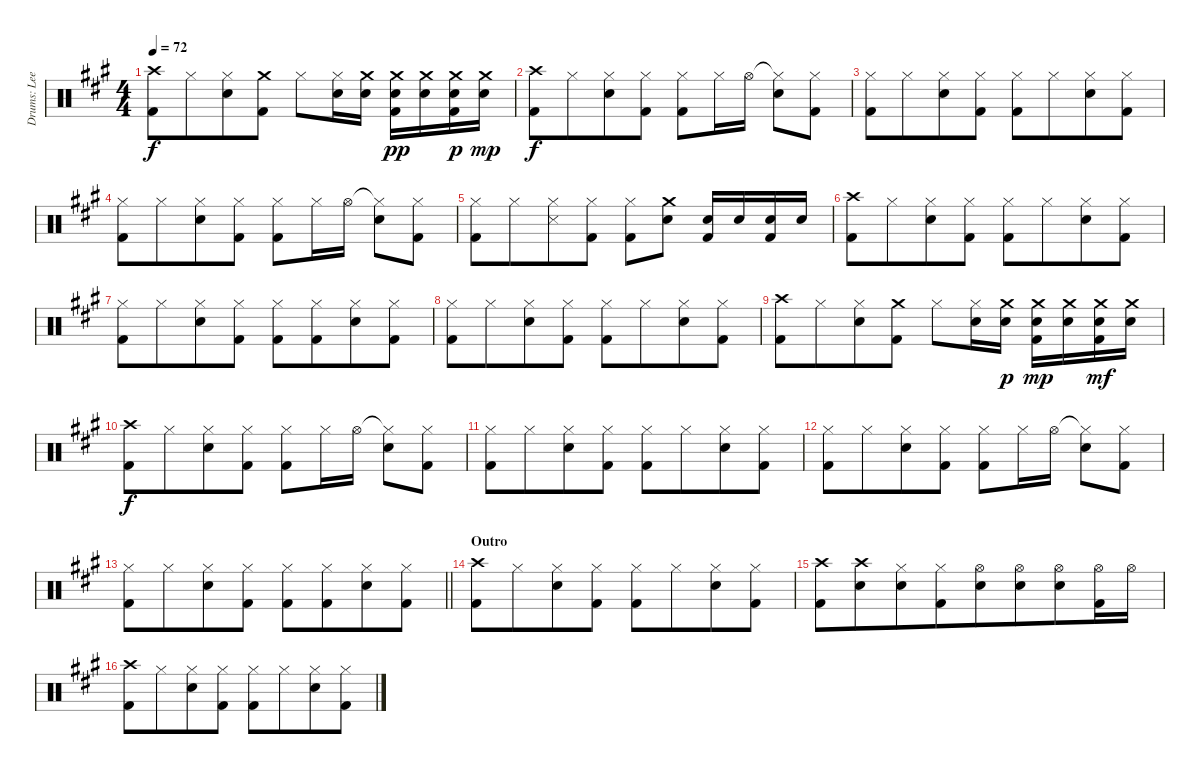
\track ("Drums: Lee" "Drums: Lee") {instrument percussion}
\staff {score}
\articulation defaults
\ts (4 4)
\tempo 72
\clef neutral
\ks a
("Crash high (hit)" "Kick (hit) 2").8{dy f} "Hi-Hat (closed)".8{beam merge} ("Hi-Hat (closed)" "Snare (hit) 2").8 ("Crash medium (hit)" "Kick (hit) 2").8 "Hi-Hat (closed)".8{beam merge} ("Hi-Hat (closed)" "Snare (hit) 2").16 ("Crash medium (hit)" "Snare (hit) 2").16 ("Crash medium (hit)" "Snare (hit) 2" "Kick (hit) 2").16{dy pp} ("Crash medium (hit)" "Snare (hit) 2").16 ("Crash medium (hit)" "Snare (hit) 2" "Kick (hit) 2").16{dy p} ("Crash medium (hit)" "Snare (hit) 2").16{dy mp} |
("Crash high (hit)" "Kick (hit) 2").8{dy f} "Hi-Hat (closed)".8{beam merge} ("Hi-Hat (closed)" "Snare (hit) 2").8 ("Hi-Hat (closed)" "Kick (hit) 2").8 ("Hi-Hat (closed)" "Kick (hit) 2").8 "Hi-Hat (closed)".16 "Hi-Hat (open)".16 ("Hi-Hat (closed)"{t} "Snare (hit) 2").8 ("Hi-Hat (closed)" "Kick (hit) 2").8 |
("Hi-Hat (closed)" "Kick (hit) 2").8 "Hi-Hat (closed)".8{beam merge} ("Hi-Hat (closed)" "Snare (hit) 2").8 ("Hi-Hat (closed)" "Kick (hit) 2").8 ("Hi-Hat (closed)" "Kick (hit) 2").8 "Hi-Hat (closed)".8{beam merge} ("Hi-Hat (closed)" "Snare (hit) 2").8 ("Hi-Hat (closed)" "Kick (hit) 2").8 |
("Hi-Hat (closed)" "Kick (hit) 2").8 "Hi-Hat (closed)".8{beam merge} ("Hi-Hat (closed)" "Snare (hit) 2").8 ("Hi-Hat (closed)" "Kick (hit) 2").8 ("Hi-Hat (closed)" "Kick (hit) 2").8 "Hi-Hat (closed)".16 "Hi-Hat (open)".16 ("Hi-Hat (closed)"{t} "Snare (hit) 2").8 ("Hi-Hat (closed)" "Kick (hit) 2").8 |
("Hi-Hat (closed)" "Kick (hit) 2").8 "Hi-Hat (closed)".8{beam merge} ("Hi-Hat (closed)" "Snare (side stick) 3").8 ("Hi-Hat (closed)" "Kick (hit) 2").8 ("Hi-Hat (closed)" "Kick (hit) 2").8 ("Crash medium (hit)" "Snare (hit) 2").8 ("Snare (hit) 2" "Kick (hit) 2").16 "Snare (hit) 2".16 ("Snare (hit) 2" "Kick (hit) 2").16 "Snare (hit) 2".16 |
("Crash high (hit)" "Kick (hit) 2").8 "Hi-Hat (closed)".8{beam merge} ("Hi-Hat (closed)" "Snare (hit) 2").8 ("Hi-Hat (closed)" "Kick (hit) 2").8 ("Hi-Hat (closed)" "Kick (hit) 2").8 "Hi-Hat (closed)".8{beam merge} ("Hi-Hat (closed)" "Snare (hit) 2").8 ("Hi-Hat (closed)" "Kick (hit) 2").8 |
("Hi-Hat (closed)" "Kick (hit) 2").8 "Hi-Hat (closed)".8{beam merge} ("Hi-Hat (closed)" "Snare (hit) 2").8 ("Hi-Hat (closed)" "Kick (hit) 2").8 ("Hi-Hat (closed)" "Kick (hit) 2").8 ("Hi-Hat (closed)" "Kick (hit) 2").8{beam merge} ("Hi-Hat (closed)" "Snare (hit) 2").8 ("Hi-Hat (closed)" "Kick (hit) 2").8 |
("Hi-Hat (closed)" "Kick (hit) 2").8 "Hi-Hat (closed)".8{beam merge} ("Hi-Hat (closed)" "Snare (hit) 2").8 ("Hi-Hat (closed)" "Kick (hit) 2").8 ("Hi-Hat (closed)" "Kick (hit) 2").8 "Hi-Hat (closed)".8{beam merge} ("Hi-Hat (closed)" "Snare (hit) 2").8 ("Hi-Hat (closed)" "Kick (hit) 2").8 |
("Crash high (hit)" "Kick (hit) 2").8 "Hi-Hat (closed)".8{beam merge} ("Hi-Hat (closed)" "Snare (hit) 2").8 ("Crash medium (hit)" "Kick (hit) 2").8 "Hi-Hat (closed)".8{beam merge} ("Hi-Hat (closed)" "Snare (hit) 2").16 ("Crash medium (hit)" "Snare (hit) 2").16{dy p} ("Crash medium (hit)" "Snare (hit) 2" "Kick (hit) 2").16{dy mp} ("Crash medium (hit)" "Snare (hit) 2").16 ("Crash medium (hit)" "Snare (hit) 2" "Kick (hit) 2").16{dy mf} ("Crash medium (hit)" "Snare (hit) 2").16 |
("Crash high (hit)" "Kick (hit) 2").8{dy f} "Hi-Hat (closed)".8{beam merge} ("Hi-Hat (closed)" "Snare (hit) 2").8 ("Hi-Hat (closed)" "Kick (hit) 2").8 ("Hi-Hat (closed)" "Kick (hit) 2").8 "Hi-Hat (closed)".16 "Hi-Hat (open)".16 ("Hi-Hat (closed)"{t} "Snare (hit) 2").8 ("Hi-Hat (closed)" "Kick (hit) 2").8 |
("Hi-Hat (closed)" "Kick (hit) 2").8 "Hi-Hat (closed)".8{beam merge} ("Hi-Hat (closed)" "Snare (hit) 2").8 ("Hi-Hat (closed)" "Kick (hit) 2").8 ("Hi-Hat (closed)" "Kick (hit) 2").8 "Hi-Hat (closed)".8{beam merge} ("Hi-Hat (closed)" "Snare (hit) 2").8 ("Hi-Hat (closed)" "Kick (hit) 2").8 |
("Hi-Hat (closed)" "Kick (hit) 2").8 "Hi-Hat (closed)".8{beam merge} ("Hi-Hat (closed)" "Snare (hit) 2").8 ("Hi-Hat (closed)" "Kick (hit) 2").8 ("Hi-Hat (closed)" "Kick (hit) 2").8 "Hi-Hat (closed)".16 "Hi-Hat (open)".16 ("Hi-Hat (closed)"{t} "Snare (hit) 2").8 ("Hi-Hat (closed)" "Kick (hit) 2").8 |
\barLineRight lightlight
("Hi-Hat (closed)" "Kick (hit) 2").8 "Hi-Hat (closed)".8{beam merge} ("Hi-Hat (closed)" "Snare (hit) 2").8 ("Hi-Hat (closed)" "Kick (hit) 2").8 ("Hi-Hat (closed)" "Kick (hit) 2").8 ("Hi-Hat (closed)" "Kick (hit) 2").8{beam merge} ("Hi-Hat (closed)" "Snare (hit) 2").8 ("Hi-Hat (closed)" "Kick (hit) 2").8 |
\section ("" "Outro")
("Crash high (hit)" "Kick (hit) 2").8 "Hi-Hat (closed)".8{beam merge} ("Hi-Hat (closed)" "Snare (hit) 2").8 ("Hi-Hat (closed)" "Kick (hit) 2").8 ("Hi-Hat (closed)" "Kick (hit) 2").8 "Hi-Hat (closed)".8{beam merge} ("Hi-Hat (closed)" "Snare (hit) 2").8 ("Hi-Hat (closed)" "Kick (hit) 2").8 |
("Crash high (hit)" "Kick (hit) 2").8 ("Crash high (hit)" "Snare (hit) 2").8{beam merge} ("Hi-Hat (closed)" "Snare (hit) 2").8 ("Hi-Hat (closed)" "Kick (hit) 2").8{beam merge} ("Hi-Hat (open)" "Snare (hit) 2").8{beam merge} ("Hi-Hat (open)" "Snare (hit) 2").8{beam merge} ("Hi-Hat (open)" "Snare (hit) 2").8 ("Hi-Hat (open)" "Kick (hit) 2").16 "Hi-Hat (open)".16 |
("Crash high (hit)" "Kick (hit) 2").8 "Hi-Hat (closed)".8{beam merge} ("Hi-Hat (closed)" "Snare (hit) 2").8 ("Hi-Hat (closed)" "Kick (hit) 2").8 ("Hi-Hat (closed)" "Kick (hit) 2").8 "Hi-Hat (closed)".8{beam merge} ("Hi-Hat (closed)" "Snare (hit) 2").8 ("Hi-Hat (closed)" "Kick (hit) 2").8
